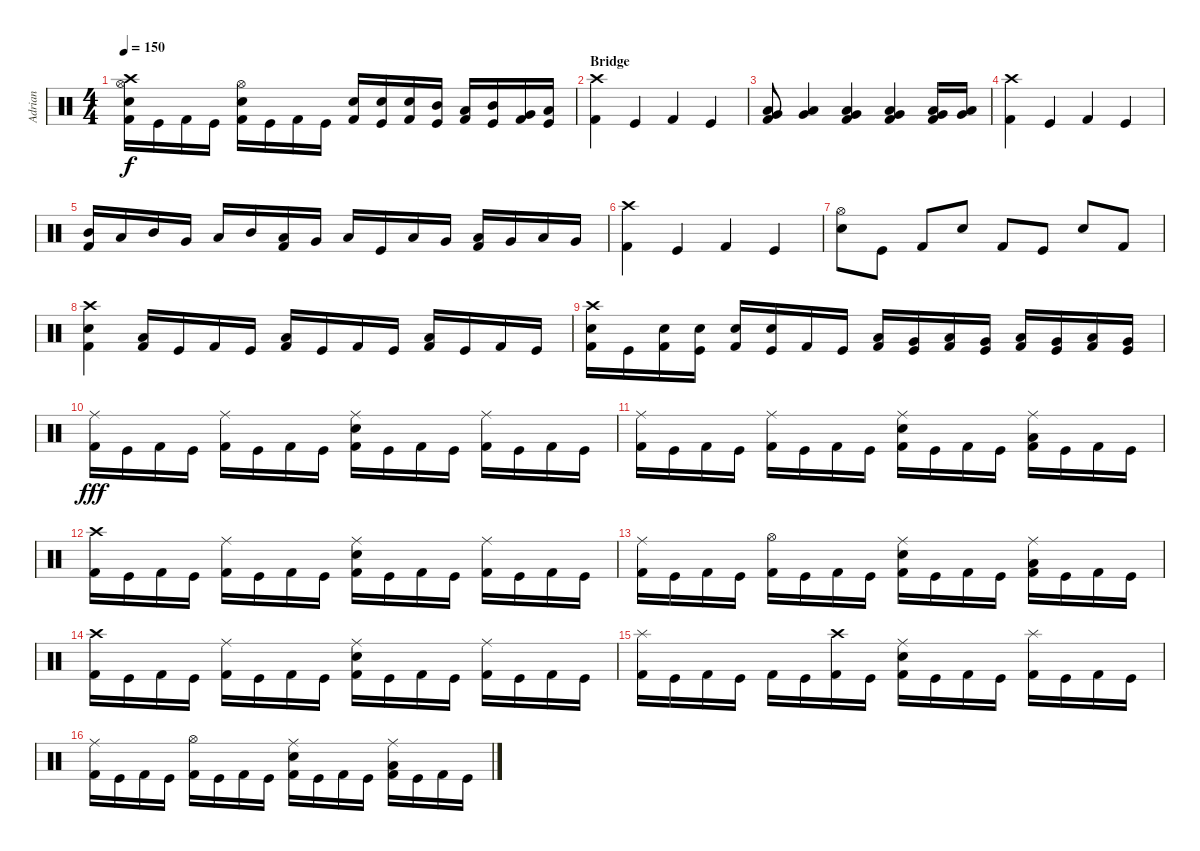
\track ("Adrian" "Adrian") {instrument percussion}
\staff {score}
\articulation defaults
\ts (4 4)
\tempo 150
\clef neutral
\ks c
("Hi-Hat (open)" "Crash high (hit)" "Electric Snare (hit)" "Kick (hit) 2").16{dy f} "Kick (hit)".16 "Kick (hit) 2".16 "Kick (hit)".16 ("Hi-Hat (open)" "Electric Snare (hit)" "Kick (hit) 2").16 "Kick (hit)".16 "Kick (hit) 2".16 "Kick (hit)".16 ("Electric Snare (hit)" "Kick (hit) 2").16 ("Electric Snare (hit)" "Kick (hit)").16 ("Electric Snare (hit)" "Kick (hit) 2").16 ("Mid Tom (hit)" "Kick (hit)").16 ("Low Tom (hit)" "Kick (hit) 2").16 ("Mid Tom (hit)" "Kick (hit)").16 ("Very Low Tom (hit)" "Kick (hit) 2").16 ("Low Tom (hit)" "Kick (hit)").16 |
\section ("" "Bridge")
("Crash high (hit)" "Kick (hit) 2").4 "Kick (hit)".4 "Kick (hit) 2".4 "Kick (hit)".4 |
("Low Tom (hit)" "Very Low Tom (hit)" "Kick (hit) 2").8 ("Low Tom (hit)" "Very Low Tom (hit)").4 ("Low Tom (hit)" "Very Low Tom (hit)" "Kick (hit) 2").4 ("Low Tom (hit)" "Very Low Tom (hit)" "Kick (hit) 2").4 ("Low Tom (hit)" "Very Low Tom (hit)" "Kick (hit) 2").16 ("Very Low Tom (hit)" "Low Tom (hit)").16 |
("Crash high (hit)" "Kick (hit) 2").4 "Kick (hit)".4 "Kick (hit) 2".4 "Kick (hit)".4 |
("Mid Tom (hit)" "Kick (hit) 2").16 "Low Tom (hit)".16 "Mid Tom (hit)".16 "Very Low Tom (hit)".16 "Low Tom (hit)".16 "Mid Tom (hit)".16 ("Low Tom (hit)" "Kick (hit) 2").16 "Very Low Tom (hit)".16 "Low Tom (hit)".16 "Kick (hit)".16 "Low Tom (hit)".16 "Very Low Tom (hit)".16 ("Low Tom (hit)" "Kick (hit) 2").16 "Very Low Tom (hit)".16 "Low Floor Tom (hit)".16 "Very Low Tom (hit)".16 |
("Crash high (hit)" "Kick (hit) 2").4 "Kick (hit)".4 "Kick (hit) 2".4 "Kick (hit)".4 |
("Hi-Hat (open)" "Electric Snare (hit)").8 "Kick (hit)".8 "Kick (hit) 2".8 "Electric Snare (hit)".8 "Kick (hit) 2".8 "Kick (hit)".8 "Electric Snare (hit)".8 "Kick (hit) 2".8 |
("Crash high (hit)" "Electric Snare (hit)" "Kick (hit) 2").4 ("Low Floor Tom (hit)" "Kick (hit) 2").16 "Kick (hit)".16 "Kick (hit) 2".16 "Kick (hit)".16 ("Low Floor Tom (hit)" "Kick (hit) 2").16 "Kick (hit)".16 "Kick (hit) 2".16 "Kick (hit)".16 ("Low Floor Tom (hit)" "Kick (hit) 2").16 "Kick (hit)".16 "Kick (hit) 2".16 "Kick (hit)".16 |
("Crash high (hit)" "Electric Snare (hit)" "Kick (hit) 2").16 "Kick (hit)".16 ("Electric Snare (hit)" "Kick (hit) 2").16 ("Electric Snare (hit)" "Kick (hit)").16 ("Electric Snare (hit)" "Kick (hit) 2").16 ("Electric Snare (hit)" "Kick (hit)").16 "Kick (hit) 2".16 "Kick (hit)".16 ("Low Tom (hit)" "Kick (hit) 2").16 ("Very Low Tom (hit)" "Kick (hit)").16 ("Low Tom (hit)" "Kick (hit) 2").16 ("Very Low Tom (hit)" "Kick (hit)").16 ("Low Tom (hit)" "Kick (hit) 2").16 ("Very Low Tom (hit)" "Kick (hit)").16 ("Low Tom (hit)" "Kick (hit) 2").16 ("Very Low Tom (hit)" "Kick (hit)").16 |
("Ride (middle)" "Kick (hit) 2").16{dy fff} "Kick (hit)".16 "Kick (hit) 2".16 "Kick (hit)".16 ("Ride (middle)" "Kick (hit) 2").16 "Kick (hit)".16 "Kick (hit) 2".16 "Kick (hit)".16 ("Ride (middle)" "Electric Snare (hit)" "Kick (hit) 2").16 "Kick (hit)".16 "Kick (hit) 2".16 "Kick (hit)".16 ("Ride (middle)" "Kick (hit) 2").16 "Kick (hit)".16 "Kick (hit) 2".16 "Kick (hit)".16 |
("Ride (middle)" "Kick (hit) 2").16 "Kick (hit)".16 "Kick (hit) 2".16 "Kick (hit)".16 ("Ride (middle)" "Kick (hit) 2").16 "Kick (hit)".16 "Kick (hit) 2".16 "Kick (hit)".16 ("Ride (middle)" "Electric Snare (hit)" "Kick (hit) 2").16 "Kick (hit)".16 "Kick (hit) 2".16 "Kick (hit)".16 ("Ride (middle)" "Low Floor Tom (hit)" "Kick (hit) 2").16 "Kick (hit)".16 "Kick (hit) 2".16 "Kick (hit)".16 |
("Crash high (hit)" "Kick (hit) 2").16 "Kick (hit)".16 "Kick (hit) 2".16 "Kick (hit)".16 ("Ride (middle)" "Kick (hit) 2").16 "Kick (hit)".16 "Kick (hit) 2".16 "Kick (hit)".16 ("Ride (middle)" "Electric Snare (hit)" "Kick (hit) 2").16 "Kick (hit)".16 "Kick (hit) 2".16 "Kick (hit)".16 ("Ride (middle)" "Kick (hit) 2").16 "Kick (hit)".16 "Kick (hit) 2".16 "Kick (hit)".16 |
("Ride (middle)" "Kick (hit) 2").16 "Kick (hit)".16 "Kick (hit) 2".16 "Kick (hit)".16 ("Hi-Hat (open)" "Kick (hit) 2").16 "Kick (hit)".16 "Kick (hit) 2".16 "Kick (hit)".16 ("Ride (middle)" "Electric Snare (hit)" "Kick (hit) 2").16 "Kick (hit)".16 "Kick (hit) 2".16 "Kick (hit)".16 ("Ride (middle)" "Low Floor Tom (hit)" "Kick (hit) 2").16 "Kick (hit)".16 "Kick (hit) 2".16 "Kick (hit)".16 |
("Crash high (hit)" "Kick (hit) 2").16 "Kick (hit)".16 "Kick (hit) 2".16 "Kick (hit)".16 ("Ride (middle)" "Kick (hit) 2").16 "Kick (hit)".16 "Kick (hit) 2".16 "Kick (hit)".16 ("Ride (middle)" "Electric Snare (hit)" "Kick (hit) 2").16 "Kick (hit)".16 "Kick (hit) 2".16 "Kick (hit)".16 ("Ride (middle)" "Kick (hit) 2").16 "Kick (hit)".16 "Kick (hit) 2".16 "Kick (hit)".16 |
("Splash (hit)" "Kick (hit) 2").16 "Kick (hit)".16 "Kick (hit) 2".16 "Kick (hit)".16 "Kick (hit) 2".16 "Kick (hit)".16 ("Crash high (hit)" "Kick (hit) 2").16 "Kick (hit)".16 ("Ride (middle)" "Electric Snare (hit)" "Kick (hit) 2").16 "Kick (hit)".16 "Kick (hit) 2".16 "Kick (hit)".16 ("Splash (hit)" "Kick (hit) 2").16 "Kick (hit)".16 "Kick (hit) 2".16 "Kick (hit)".16 |
("Ride (middle)" "Kick (hit) 2").16 "Kick (hit)".16 "Kick (hit) 2".16 "Kick (hit)".16 ("Hi-Hat (open)" "Kick (hit) 2").16 "Kick (hit)".16 "Kick (hit) 2".16 "Kick (hit)".16 ("Ride (middle)" "Electric Snare (hit)" "Kick (hit) 2").16 "Kick (hit)".16 "Kick (hit) 2".16 "Kick (hit)".16 ("Ride (middle)" "Low Floor Tom (hit)" "Kick (hit) 2").16 "Kick (hit)".16 "Kick (hit) 2".16 "Kick (hit)".16
